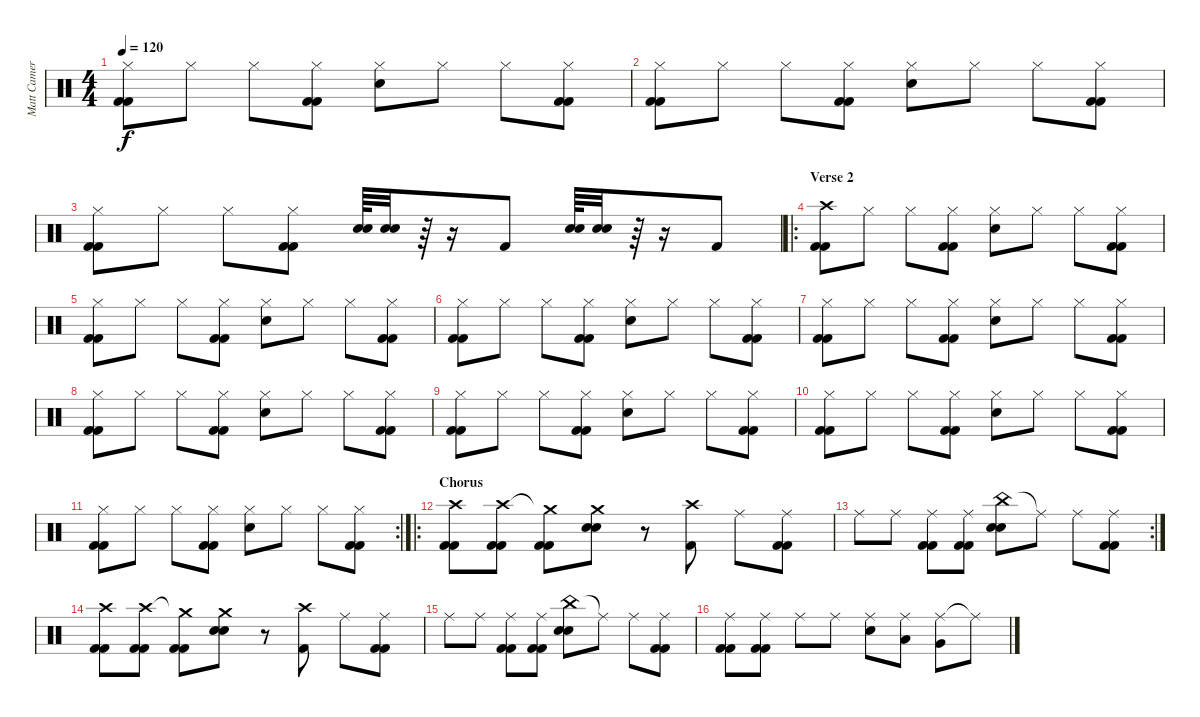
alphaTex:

\track ("Matt Cameron" "Matt Camer") {instrument percussion}
\staff {score}
\articulation defaults
\ts (4 4)
\tempo 120
\clef neutral
\ks c
("Hi-Hat (closed)" "Kick (hit) 2" "Kick (hit) 2").8{dy f} "Hi-Hat (closed)".8 "Hi-Hat (closed)".8 ("Hi-Hat (closed)" "Kick (hit) 2" "Kick (hit) 2").8 ("Hi-Hat (closed)" "Electric Snare (hit)").8 "Hi-Hat (closed)".8 "Hi-Hat (closed)".8 ("Hi-Hat (closed)" "Kick (hit) 2" "Kick (hit) 2").8 |
("Hi-Hat (closed)" "Kick (hit) 2" "Kick (hit) 2").8 "Hi-Hat (closed)".8 "Hi-Hat (closed)".8 ("Hi-Hat (closed)" "Kick (hit) 2" "Kick (hit) 2").8 ("Hi-Hat (closed)" "Electric Snare (hit)").8 "Hi-Hat (closed)".8 "Hi-Hat (closed)".8 ("Hi-Hat (closed)" "Kick (hit) 2" "Kick (hit) 2").8 |
("Hi-Hat (closed)" "Kick (hit) 2" "Kick (hit) 2").8 "Hi-Hat (closed)".8 "Hi-Hat (closed)".8 ("Hi-Hat (closed)" "Kick (hit) 2" "Kick (hit) 2").8 ("Electric Snare (hit)" "Electric Snare (hit)").64 ("Electric Snare (hit)" "Electric Snare (hit)").32 r.64 r.16 "Kick (hit) 2".8 ("Electric Snare (hit)" "Electric Snare (hit)").64 ("Electric Snare (hit)" "Electric Snare (hit)").32 r.64 r.16 "Kick (hit) 2".8 |
\ro
\section ("" "Verse 2")
("Crash high (hit)" "Kick (hit) 2" "Kick (hit) 2").8 "Hi-Hat (closed)".8 "Hi-Hat (closed)".8 ("Hi-Hat (closed)" "Kick (hit) 2" "Kick (hit) 2").8 ("Hi-Hat (closed)" "Electric Snare (hit)").8 "Hi-Hat (closed)".8 "Hi-Hat (closed)".8 ("Hi-Hat (closed)" "Kick (hit) 2" "Kick (hit) 2").8 |
("Hi-Hat (closed)" "Kick (hit) 2" "Kick (hit) 2").8 "Hi-Hat (closed)".8 "Hi-Hat (closed)".8 ("Hi-Hat (closed)" "Kick (hit) 2" "Kick (hit) 2").8 ("Hi-Hat (closed)" "Electric Snare (hit)").8 "Hi-Hat (closed)".8 "Hi-Hat (closed)".8 ("Hi-Hat (closed)" "Kick (hit) 2" "Kick (hit) 2").8 |
("Hi-Hat (closed)" "Kick (hit) 2" "Kick (hit) 2").8 "Hi-Hat (closed)".8 "Hi-Hat (closed)".8 ("Hi-Hat (closed)" "Kick (hit) 2" "Kick (hit) 2").8 ("Hi-Hat (closed)" "Electric Snare (hit)").8 "Hi-Hat (closed)".8 "Hi-Hat (closed)".8 ("Hi-Hat (closed)" "Kick (hit) 2" "Kick (hit) 2").8 |
("Hi-Hat (closed)" "Kick (hit) 2" "Kick (hit) 2").8 "Hi-Hat (closed)".8 "Hi-Hat (closed)".8 ("Hi-Hat (closed)" "Kick (hit) 2" "Kick (hit) 2").8 ("Hi-Hat (closed)" "Electric Snare (hit)").8 "Hi-Hat (closed)".8 "Hi-Hat (closed)".8 ("Hi-Hat (closed)" "Kick (hit) 2" "Kick (hit) 2").8 |
("Hi-Hat (closed)" "Kick (hit) 2" "Kick (hit) 2").8 "Hi-Hat (closed)".8 "Hi-Hat (closed)".8 ("Hi-Hat (closed)" "Kick (hit) 2" "Kick (hit) 2").8 ("Hi-Hat (closed)" "Electric Snare (hit)").8 "Hi-Hat (closed)".8 "Hi-Hat (closed)".8 ("Hi-Hat (closed)" "Kick (hit) 2" "Kick (hit) 2").8 |
("Hi-Hat (closed)" "Kick (hit) 2" "Kick (hit) 2").8 "Hi-Hat (closed)".8 "Hi-Hat (closed)".8 ("Hi-Hat (closed)" "Kick (hit) 2" "Kick (hit) 2").8 ("Hi-Hat (closed)" "Electric Snare (hit)").8 "Hi-Hat (closed)".8 "Hi-Hat (closed)".8 ("Hi-Hat (closed)" "Kick (hit) 2" "Kick (hit) 2").8 |
("Hi-Hat (closed)" "Kick (hit) 2" "Kick (hit) 2").8 "Hi-Hat (closed)".8 "Hi-Hat (closed)".8 ("Hi-Hat (closed)" "Kick (hit) 2" "Kick (hit) 2").8 ("Hi-Hat (closed)" "Electric Snare (hit)").8 "Hi-Hat (closed)".8 "Hi-Hat (closed)".8 ("Hi-Hat (closed)" "Kick (hit) 2" "Kick (hit) 2").8 |
\rc 2
("Hi-Hat (closed)" "Kick (hit) 2" "Kick (hit) 2").8 "Hi-Hat (closed)".8 "Hi-Hat (closed)".8 ("Hi-Hat (closed)" "Kick (hit) 2" "Kick (hit) 2").8 ("Hi-Hat (closed)" "Electric Snare (hit)").8 "Hi-Hat (closed)".8 "Hi-Hat (closed)".8 ("Hi-Hat (closed)" "Kick (hit) 2" "Kick (hit) 2").8 |
\ro
\section ("" "Chorus")
("Crash high (hit)" "Kick (hit) 2" "Kick (hit) 2").8 ("Crash high (hit)" "Kick (hit) 2" "Kick (hit) 2").8 ("Crash medium (hit)"{t} "Kick (hit) 2" "Kick (hit) 2").8 ("Crash medium (hit)" "Electric Snare (hit)" "Electric Snare (hit)").8 r.8 ("Crash high (hit)" "Kick (hit) 2").8 "Ride (middle)".8 ("Ride (middle)" "Kick (hit) 2" "Kick (hit) 2").8 |
\rc 2 "Ride (middle)".8 "Ride (middle)".8
("Ride (middle)" "Kick (hit) 2" "Kick (hit) 2").8 ("Ride (middle)" "Kick (hit) 2" "Kick (hit) 2").8 ("China (hit)" "Electric Snare (hit)" "Electric Snare (hit)").8 "Ride (middle)"{t}.8 "Ride (middle)".8 ("Ride (middle)" "Kick (hit) 2" "Kick (hit) 2").8 |
("Crash high (hit)" "Kick (hit) 2" "Kick (hit) 2").8 ("Crash high (hit)" "Kick (hit) 2" "Kick (hit) 2").8 ("Crash medium (hit)"{t} "Kick (hit) 2" "Kick (hit) 2").8 ("Crash medium (hit)" "Electric Snare (hit)" "Electric Snare (hit)").8 r.8 ("Crash high (hit)" "Kick (hit) 2").8 "Ride (middle)".8 ("Ride (middle)" "Kick (hit) 2" "Kick (hit) 2").8 |
"Ride (middle)".8 "Ride (middle)".8 ("Ride (middle)" "Kick (hit) 2" "Kick (hit) 2").8 ("Ride (middle)" "Kick (hit) 2" "Kick (hit) 2").8 ("China (hit)" "Electric Snare (hit)" "Electric Snare (hit)").8 "Ride (middle)"{t}.8 "Ride (middle)".8 ("Ride (middle)" "Kick (hit) 2" "Kick (hit) 2").8 |
("Ride (middle)" "Kick (hit) 2" "Kick (hit) 2").8 ("Ride (middle)" "Kick (hit) 2" "Kick (hit) 2").8 "Ride (middle)".8 "Ride (middle)".8 ("Ride (middle)" "Electric Snare (hit)").8 ("Ride (middle)" "Low Tom (hit)").8 ("Ride (middle)" "Very Low Tom (hit)").8 "Ride (middle)"{t}.8
